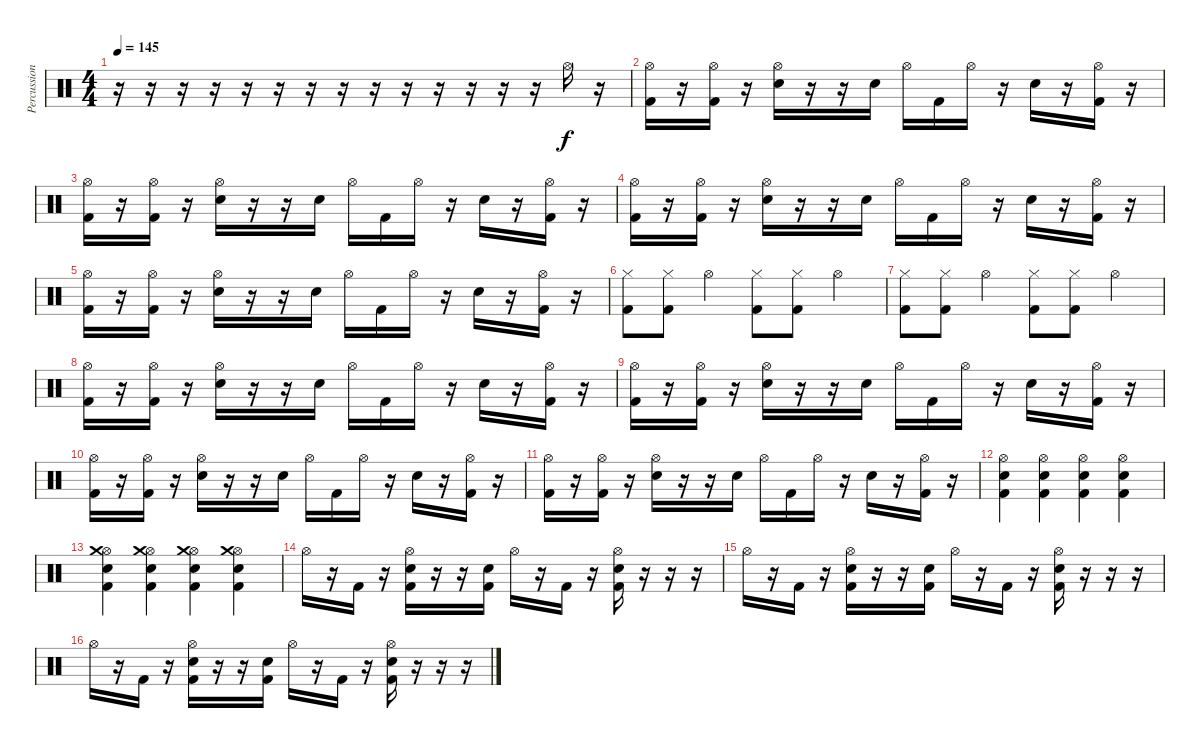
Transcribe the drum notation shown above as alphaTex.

\track ("Percussions" "Percussion") {instrument percussion}
\staff {score}
\articulation defaults
\ts (4 4)
\tempo 145
\clef neutral
\ks c
r.16{dy f} r.16 r.16 r.16 r.16 r.16 r.16 r.16 r.16 r.16 r.16 r.16 r.16 r.16 "Hi-Hat (open)".16 r.16 |
("Hi-Hat (open)" "Kick (hit) 2").16 r.16 ("Hi-Hat (open)" "Kick (hit) 2").16 r.16 ("Hi-Hat (open)" "Electric Snare (hit)").16 r.16 r.16 "Electric Snare (hit)".16 "Hi-Hat (open)".16 "Kick (hit) 2".16 "Hi-Hat (open)".16 r.16 "Electric Snare (hit)".16 r.16 ("Hi-Hat (open)" "Kick (hit) 2").16 r.16 |
("Hi-Hat (open)" "Kick (hit) 2").16 r.16 ("Hi-Hat (open)" "Kick (hit) 2").16 r.16 ("Hi-Hat (open)" "Electric Snare (hit)").16 r.16 r.16 "Electric Snare (hit)".16 "Hi-Hat (open)".16 "Kick (hit) 2".16 "Hi-Hat (open)".16 r.16 "Electric Snare (hit)".16 r.16 ("Hi-Hat (open)" "Kick (hit) 2").16 r.16 |
("Hi-Hat (open)" "Kick (hit) 2").16 r.16 ("Hi-Hat (open)" "Kick (hit) 2").16 r.16 ("Hi-Hat (open)" "Electric Snare (hit)").16 r.16 r.16 "Electric Snare (hit)".16 "Hi-Hat (open)".16 "Kick (hit) 2".16 "Hi-Hat (open)".16 r.16 "Electric Snare (hit)".16 r.16 ("Hi-Hat (open)" "Kick (hit) 2").16 r.16 |
("Hi-Hat (open)" "Kick (hit) 2").16 r.16 ("Hi-Hat (open)" "Kick (hit) 2").16 r.16 ("Hi-Hat (open)" "Electric Snare (hit)").16 r.16 r.16 "Electric Snare (hit)".16 "Hi-Hat (open)".16 "Kick (hit) 2".16 "Hi-Hat (open)".16 r.16 "Electric Snare (hit)".16 r.16 ("Hi-Hat (open)" "Kick (hit) 2").16 r.16 |
("Hi-Hat (closed)" "Kick (hit) 2").8 ("Hi-Hat (closed)" "Kick (hit) 2").8 "Hi-Hat (open)".4 ("Hi-Hat (closed)" "Kick (hit) 2").8 ("Hi-Hat (closed)" "Kick (hit) 2").8 "Hi-Hat (open)".4 |
("Hi-Hat (closed)" "Kick (hit) 2").8 ("Hi-Hat (closed)" "Kick (hit) 2").8 "Hi-Hat (open)".4 ("Hi-Hat (closed)" "Kick (hit) 2").8 ("Hi-Hat (closed)" "Kick (hit) 2").8 "Hi-Hat (open)".4 |
("Hi-Hat (open)" "Kick (hit) 2").16 r.16 ("Hi-Hat (open)" "Kick (hit) 2").16 r.16 ("Hi-Hat (open)" "Electric Snare (hit)").16 r.16 r.16 "Electric Snare (hit)".16 "Hi-Hat (open)".16 "Kick (hit) 2".16 "Hi-Hat (open)".16 r.16 "Electric Snare (hit)".16 r.16 ("Hi-Hat (open)" "Kick (hit) 2").16 r.16 |
("Hi-Hat (open)" "Kick (hit) 2").16 r.16 ("Hi-Hat (open)" "Kick (hit) 2").16 r.16 ("Hi-Hat (open)" "Electric Snare (hit)").16 r.16 r.16 "Electric Snare (hit)".16 "Hi-Hat (open)".16 "Kick (hit) 2".16 "Hi-Hat (open)".16 r.16 "Electric Snare (hit)".16 r.16 ("Hi-Hat (open)" "Kick (hit) 2").16 r.16 |
("Hi-Hat (open)" "Kick (hit) 2").16 r.16 ("Hi-Hat (open)" "Kick (hit) 2").16 r.16 ("Hi-Hat (open)" "Electric Snare (hit)").16 r.16 r.16 "Electric Snare (hit)".16 "Hi-Hat (open)".16 "Kick (hit) 2".16 "Hi-Hat (open)".16 r.16 "Electric Snare (hit)".16 r.16 ("Hi-Hat (open)" "Kick (hit) 2").16 r.16 |
("Hi-Hat (open)" "Kick (hit) 2").16 r.16 ("Hi-Hat (open)" "Kick (hit) 2").16 r.16 ("Hi-Hat (open)" "Electric Snare (hit)").16 r.16 r.16 "Electric Snare (hit)".16 "Hi-Hat (open)".16 "Kick (hit) 2".16 "Hi-Hat (open)".16 r.16 "Electric Snare (hit)".16 r.16 ("Hi-Hat (open)" "Kick (hit) 2").16 r.16 |
("Hi-Hat (open)" "Electric Snare (hit)" "Kick (hit) 2").4 ("Hi-Hat (open)" "Electric Snare (hit)" "Kick (hit) 2").4 ("Hi-Hat (open)" "Electric Snare (hit)" "Kick (hit) 2").4 ("Hi-Hat (open)" "Electric Snare (hit)" "Kick (hit) 2").4 |
("Hi-Hat (open)" "Electric Snare (hit)" "Crash medium (hit)" "Kick (hit) 2").4 ("Hi-Hat (open)" "Electric Snare (hit)" "Crash medium (hit)" "Kick (hit) 2").4 ("Hi-Hat (open)" "Electric Snare (hit)" "Crash medium (hit)" "Kick (hit) 2").4 ("Hi-Hat (open)" "Electric Snare (hit)" "Crash medium (hit)" "Kick (hit) 2").4 |
"Hi-Hat (open)".16 r.16 "Kick (hit) 2".16 r.16 ("Hi-Hat (open)" "Electric Snare (hit)" "Kick (hit) 2").16 r.16 r.16 ("Electric Snare (hit)" "Kick (hit) 2").16 "Hi-Hat (open)".16 r.16 "Kick (hit) 2".16 r.16 ("Hi-Hat (open)" "Electric Snare (hit)" "Kick (hit) 2").16 r.16 r.16 r.16 |
"Hi-Hat (open)".16 r.16 "Kick (hit) 2".16 r.16 ("Hi-Hat (open)" "Electric Snare (hit)" "Kick (hit) 2").16 r.16 r.16 ("Electric Snare (hit)" "Kick (hit) 2").16 "Hi-Hat (open)".16 r.16 "Kick (hit) 2".16 r.16 ("Hi-Hat (open)" "Electric Snare (hit)" "Kick (hit) 2").16 r.16 r.16 r.16 |
"Hi-Hat (open)".16 r.16 "Kick (hit) 2".16 r.16 ("Hi-Hat (open)" "Electric Snare (hit)" "Kick (hit) 2").16 r.16 r.16 ("Electric Snare (hit)" "Kick (hit) 2").16 "Hi-Hat (open)".16 r.16 "Kick (hit) 2".16 r.16 ("Hi-Hat (open)" "Electric Snare (hit)" "Kick (hit) 2").16 r.16 r.16 r.16
